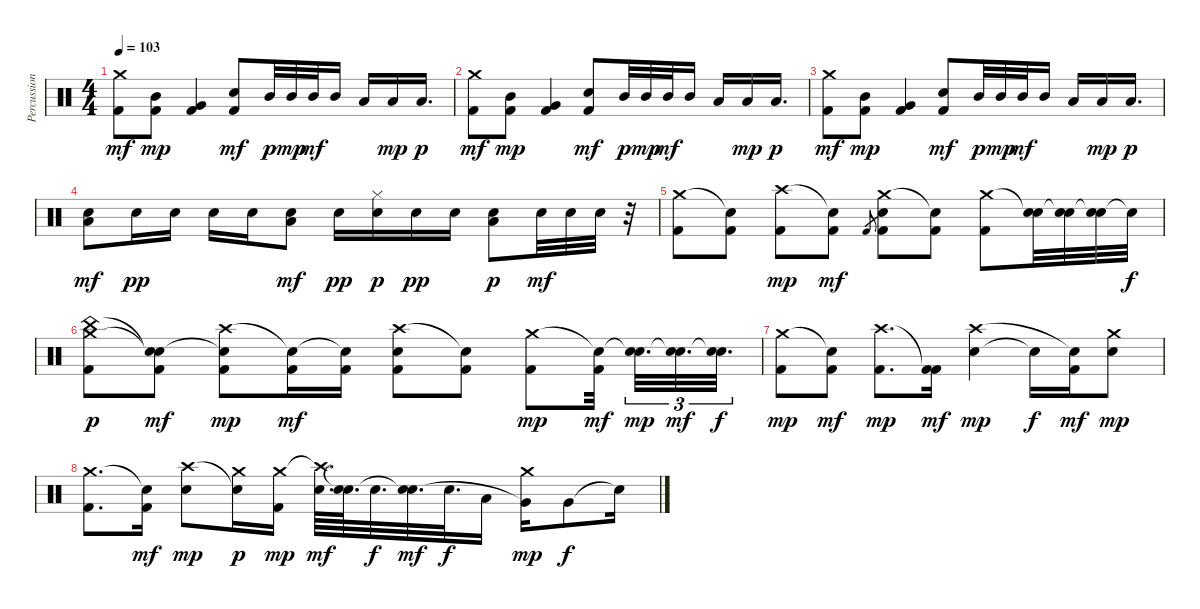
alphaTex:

\track ("Percussion" "Percussion") {instrument percussion}
\staff {score}
\articulation defaults
\ts (4 4)
\tempo 103
\clef neutral
\ks c
("Crash medium (hit)" "Kick (hit) 2").8{dy mf} ("Kick (hit) 2" "Mid Tom (hit)").8{dy mp} ("Very Low Tom (hit)" "Kick (hit) 2").4 ("Electric Snare (hit)" "Kick (hit) 2").8{dy mf} "Mid Tom (hit)".32{dy p} "Mid Tom (hit)".32{dy mp} "Mid Tom (hit)".32{dy mf} "Mid Tom (hit)".16 "Low Tom (hit)".16 "Low Tom (hit)".16{dy mp} "Low Tom (hit)".16{d dy p} |
("Crash medium (hit)" "Kick (hit) 2").8{dy mf} ("Kick (hit) 2" "Mid Tom (hit)").8{dy mp} ("Very Low Tom (hit)" "Kick (hit) 2").4 ("Electric Snare (hit)" "Kick (hit) 2").8{dy mf} "Mid Tom (hit)".32{dy p} "Mid Tom (hit)".32{dy mp} "Mid Tom (hit)".32{dy mf} "Mid Tom (hit)".16 "Low Tom (hit)".16 "Low Tom (hit)".16{dy mp} "Low Tom (hit)".16{d dy p} |
("Crash medium (hit)" "Kick (hit) 2").8{dy mf} ("Kick (hit) 2" "Mid Tom (hit)").8{dy mp} ("Very Low Tom (hit)" "Kick (hit) 2").4 ("Electric Snare (hit)" "Kick (hit) 2").8{dy mf} "Mid Tom (hit)".32{dy p} "Mid Tom (hit)".32{dy mp} "Mid Tom (hit)".32{dy mf} "Mid Tom (hit)".16 "Low Tom (hit)".16 "Low Tom (hit)".16{dy mp} "Low Tom (hit)".16{d dy p} |
("Electric Snare (hit)" "Low Tom (hit)").8{dy mf} "Electric Snare (hit)".16{dy pp} "Electric Snare (hit)".16 "Electric Snare (hit)".16 "Electric Snare (hit)".16 ("Electric Snare (hit)" "Low Tom (hit)").8{dy mf} "Electric Snare (hit)".16{dy pp} ("Electric Snare (hit)" "Hi-Hat (closed)").16{dy p} "Electric Snare (hit)".16{dy pp} "Electric Snare (hit)".16 ("Electric Snare (hit)" "Low Tom (hit)").8{dy p} "Electric Snare (hit)".32{dy mf} "Electric Snare (hit)".32 "Electric Snare (hit)".32 r.32 |
("Kick (hit) 2" "Crash medium (hit)").8{volume 10} ("Kick (hit) 2" "Snare (hit)"{t}).8 ("Kick (hit) 2" "Crash high (hit)").8{dy mp} ("Kick (hit) 2" "Snare (hit)"{t}).8{dy mf} "Kick (hit) 2".8{gr} ("Kick (hit) 2" "Crash medium (hit)" "Electric Snare (hit)").8 ("Kick (hit) 2" "Snare (hit)"{t}).8 ("Kick (hit) 2" "Crash medium (hit)").8 ("Electric Snare (hit)" "Snare (hit)"{t}).32 ("Electric Snare (hit)" "Snare (hit)"{t}).32 ("Electric Snare (hit)" "Snare (hit)"{t}).32 "Snare (hit)"{t}.32{dy f} |
("Kick (hit) 2" "Crash medium (hit)" "China (hit)").8{dy p} ("Kick (hit) 2" "Snare (hit)"{t} "Snare (hit)"{t}).8{dy mf} ("Kick (hit) 2" "Crash high (hit)" "Snare (hit)"{t}).8{dy mp} ("Kick (hit) 2" "Snare (hit)"{t}).16{dy mf} ("Kick (hit) 2" "Snare (hit)"{t}).16 ("Kick (hit) 2" "Crash high (hit)" "Electric Snare (hit)").8 ("Kick (hit) 2" "Snare (hit)"{t}).8 ("Kick (hit) 2" "Crash medium (hit)").8{dy mp} ("Kick (hit) 2" "Snare (hit)"{t}).32{dy mf beam splitsecondary} ("Electric Snare (hit)" "Snare (hit)"{t}).32{d tu (3 2) dy mp} ("Electric Snare (hit)" "Snare (hit)"{t}).32{d tu (3 2) dy mf} ("Electric Snare (hit)" "Snare (hit)"{t}).32{d tu (3 2) dy f} |
("Kick (hit) 2" "Crash medium (hit)").8{dy mp} ("Kick (hit) 2" "Snare (hit)"{t}).8{dy mf} ("Kick (hit) 2" "Crash high (hit)").8{d dy mp} ("Kick (hit) 2" "Kick (hit) 2"{t}).16{dy mf} ("Electric Snare (hit)" "Crash high (hit)").4{dy mp} "Snare (hit)"{t}.16{dy f} ("Kick (hit) 2" "Snare (hit)"{t}).16{dy mf} ("Electric Snare (hit)" "Crash medium (hit)").8{dy mp} |
("Kick (hit) 2" "Crash medium (hit)").8{d} ("Kick (hit) 2" "Snare (hit)"{t}).16{dy mf} ("Electric Snare (hit)" "Crash high (hit)").8{dy mp} ("Crash medium (hit)" "Snare (hit)"{t}).16{dy p} ("Kick (hit) 2" "Crash medium (hit)").16{dy mp} ("Electric Snare (hit)" "Crash high (hit)"{t}).64{d dy mf} ("Electric Snare (hit)" "Snare (hit)"{t}).64{d} "Electric Snare (hit)".32{d dy f} ("Electric Snare (hit)" "Snare (hit)"{t}).32{d dy mf} "Electric Snare (hit)".32{d dy f} "Low Tom (hit)".16 ("Crash medium (hit)" "Very Low Tom (hit)"{t}).16{dy mp} "Very Low Tom (hit)".8{dy f} "Snare (hit)"{t}.16
